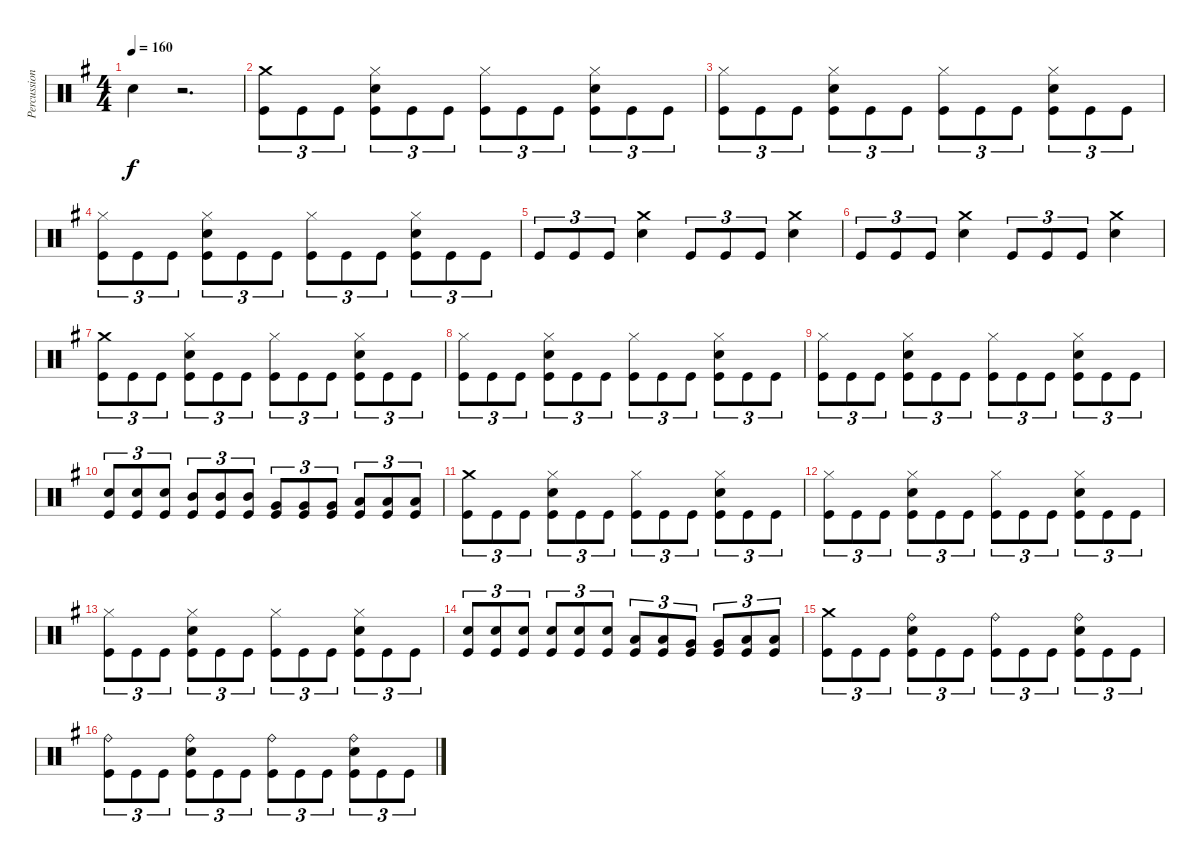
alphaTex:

\track ("Percussions" "Percussion") {instrument percussion}
\staff {score}
\articulation defaults
\ts (4 4)
\tempo 160
\clef neutral
\ks g "Electric Snare (hit)".4{dy f}
r.2{d} |
("Kick (hit)" "Crash medium (hit)").8{tu (3 2)} "Kick (hit)".8{tu (3 2)} "Kick (hit)".8{tu (3 2)} ("Kick (hit)" "Electric Snare (hit)" "Hi-Hat (closed)").8{tu (3 2)} "Kick (hit)".8{tu (3 2)} "Kick (hit)".8{tu (3 2)} ("Kick (hit)" "Hi-Hat (closed)").8{tu (3 2)} "Kick (hit)".8{tu (3 2)} "Kick (hit)".8{tu (3 2)} ("Kick (hit)" "Electric Snare (hit)" "Hi-Hat (closed)").8{tu (3 2)} "Kick (hit)".8{tu (3 2)} "Kick (hit)".8{tu (3 2)} |
("Kick (hit)" "Hi-Hat (closed)").8{tu (3 2)} "Kick (hit)".8{tu (3 2)} "Kick (hit)".8{tu (3 2)} ("Kick (hit)" "Electric Snare (hit)" "Hi-Hat (closed)").8{tu (3 2)} "Kick (hit)".8{tu (3 2)} "Kick (hit)".8{tu (3 2)} ("Kick (hit)" "Hi-Hat (closed)").8{tu (3 2)} "Kick (hit)".8{tu (3 2)} "Kick (hit)".8{tu (3 2)} ("Kick (hit)" "Electric Snare (hit)" "Hi-Hat (closed)").8{tu (3 2)} "Kick (hit)".8{tu (3 2)} "Kick (hit)".8{tu (3 2)} |
("Kick (hit)" "Hi-Hat (closed)").8{tu (3 2)} "Kick (hit)".8{tu (3 2)} "Kick (hit)".8{tu (3 2)} ("Kick (hit)" "Electric Snare (hit)" "Hi-Hat (closed)").8{tu (3 2)} "Kick (hit)".8{tu (3 2)} "Kick (hit)".8{tu (3 2)} ("Kick (hit)" "Hi-Hat (closed)").8{tu (3 2)} "Kick (hit)".8{tu (3 2)} "Kick (hit)".8{tu (3 2)} ("Kick (hit)" "Electric Snare (hit)" "Hi-Hat (closed)").8{tu (3 2)} "Kick (hit)".8{tu (3 2)} "Kick (hit)".8{tu (3 2)} |
"Kick (hit)".8{tu (3 2)} "Kick (hit)".8{tu (3 2)} "Kick (hit)".8{tu (3 2)} ("Electric Snare (hit)" "Crash medium (hit)").4 "Kick (hit)".8{tu (3 2)} "Kick (hit)".8{tu (3 2)} "Kick (hit)".8{tu (3 2)} ("Electric Snare (hit)" "Crash medium (hit)").4 |
"Kick (hit)".8{tu (3 2)} "Kick (hit)".8{tu (3 2)} "Kick (hit)".8{tu (3 2)} ("Electric Snare (hit)" "Crash medium (hit)").4 "Kick (hit)".8{tu (3 2)} "Kick (hit)".8{tu (3 2)} "Kick (hit)".8{tu (3 2)} ("Electric Snare (hit)" "Crash medium (hit)").4 |
("Kick (hit)" "Crash medium (hit)").8{tu (3 2)} "Kick (hit)".8{tu (3 2)} "Kick (hit)".8{tu (3 2)} ("Kick (hit)" "Electric Snare (hit)" "Hi-Hat (closed)").8{tu (3 2)} "Kick (hit)".8{tu (3 2)} "Kick (hit)".8{tu (3 2)} ("Kick (hit)" "Hi-Hat (closed)").8{tu (3 2)} "Kick (hit)".8{tu (3 2)} "Kick (hit)".8{tu (3 2)} ("Kick (hit)" "Electric Snare (hit)" "Hi-Hat (closed)").8{tu (3 2)} "Kick (hit)".8{tu (3 2)} "Kick (hit)".8{tu (3 2)} |
("Kick (hit)" "Hi-Hat (closed)").8{tu (3 2)} "Kick (hit)".8{tu (3 2)} "Kick (hit)".8{tu (3 2)} ("Kick (hit)" "Electric Snare (hit)" "Hi-Hat (closed)").8{tu (3 2)} "Kick (hit)".8{tu (3 2)} "Kick (hit)".8{tu (3 2)} ("Kick (hit)" "Hi-Hat (closed)").8{tu (3 2)} "Kick (hit)".8{tu (3 2)} "Kick (hit)".8{tu (3 2)} ("Kick (hit)" "Electric Snare (hit)" "Hi-Hat (closed)").8{tu (3 2)} "Kick (hit)".8{tu (3 2)} "Kick (hit)".8{tu (3 2)} |
("Kick (hit)" "Hi-Hat (closed)").8{tu (3 2)} "Kick (hit)".8{tu (3 2)} "Kick (hit)".8{tu (3 2)} ("Kick (hit)" "Electric Snare (hit)" "Hi-Hat (closed)").8{tu (3 2)} "Kick (hit)".8{tu (3 2)} "Kick (hit)".8{tu (3 2)} ("Kick (hit)" "Hi-Hat (closed)").8{tu (3 2)} "Kick (hit)".8{tu (3 2)} "Kick (hit)".8{tu (3 2)} ("Kick (hit)" "Electric Snare (hit)" "Hi-Hat (closed)").8{tu (3 2)} "Kick (hit)".8{tu (3 2)} "Kick (hit)".8{tu (3 2)} |
("Kick (hit)" "Electric Snare (hit)").8{tu (3 2)} ("Kick (hit)" "Electric Snare (hit)").8{tu (3 2)} ("Kick (hit)" "Electric Snare (hit)").8{tu (3 2)} ("Kick (hit)" "Mid Tom (hit)").8{tu (3 2)} ("Kick (hit)" "Mid Tom (hit)").8{tu (3 2)} ("Kick (hit)" "Mid Tom (hit)").8{tu (3 2)} ("Kick (hit)" "Very Low Tom (hit)").8{tu (3 2)} ("Kick (hit)" "Very Low Tom (hit)").8{tu (3 2)} ("Kick (hit)" "Very Low Tom (hit)").8{tu (3 2)} ("Kick (hit)" "Low Floor Tom (hit)").8{tu (3 2)} ("Kick (hit)" "Low Floor Tom (hit)").8{tu (3 2)} ("Kick (hit)" "Low Floor Tom (hit)").8{tu (3 2)} |
("Kick (hit)" "Crash medium (hit)").8{tu (3 2)} "Kick (hit)".8{tu (3 2)} "Kick (hit)".8{tu (3 2)} ("Kick (hit)" "Electric Snare (hit)" "Hi-Hat (closed)").8{tu (3 2)} "Kick (hit)".8{tu (3 2)} "Kick (hit)".8{tu (3 2)} ("Kick (hit)" "Hi-Hat (closed)").8{tu (3 2)} "Kick (hit)".8{tu (3 2)} "Kick (hit)".8{tu (3 2)} ("Kick (hit)" "Electric Snare (hit)" "Hi-Hat (closed)").8{tu (3 2)} "Kick (hit)".8{tu (3 2)} "Kick (hit)".8{tu (3 2)} |
("Kick (hit)" "Hi-Hat (closed)").8{tu (3 2)} "Kick (hit)".8{tu (3 2)} "Kick (hit)".8{tu (3 2)} ("Kick (hit)" "Electric Snare (hit)" "Hi-Hat (closed)").8{tu (3 2)} "Kick (hit)".8{tu (3 2)} "Kick (hit)".8{tu (3 2)} ("Kick (hit)" "Hi-Hat (closed)").8{tu (3 2)} "Kick (hit)".8{tu (3 2)} "Kick (hit)".8{tu (3 2)} ("Kick (hit)" "Electric Snare (hit)" "Hi-Hat (closed)").8{tu (3 2)} "Kick (hit)".8{tu (3 2)} "Kick (hit)".8{tu (3 2)} |
("Kick (hit)" "Hi-Hat (closed)").8{tu (3 2)} "Kick (hit)".8{tu (3 2)} "Kick (hit)".8{tu (3 2)} ("Kick (hit)" "Electric Snare (hit)" "Hi-Hat (closed)").8{tu (3 2)} "Kick (hit)".8{tu (3 2)} "Kick (hit)".8{tu (3 2)} ("Kick (hit)" "Hi-Hat (closed)").8{tu (3 2)} "Kick (hit)".8{tu (3 2)} "Kick (hit)".8{tu (3 2)} ("Kick (hit)" "Electric Snare (hit)" "Hi-Hat (closed)").8{tu (3 2)} "Kick (hit)".8{tu (3 2)} "Kick (hit)".8{tu (3 2)} |
("Kick (hit)" "Electric Snare (hit)").8{tu (3 2)} ("Kick (hit)" "Electric Snare (hit)").8{tu (3 2)} ("Kick (hit)" "Electric Snare (hit)").8{tu (3 2)} ("Kick (hit)" "Electric Snare (hit)").8{tu (3 2)} ("Kick (hit)" "Electric Snare (hit)").8{tu (3 2)} ("Kick (hit)" "Electric Snare (hit)").8{tu (3 2)} ("Kick (hit)" "Low Tom (hit)").8{tu (3 2)} ("Kick (hit)" "Low Tom (hit)").8{tu (3 2)} ("Kick (hit)" "Very Low Tom (hit)").8{tu (3 2)} ("Kick (hit)" "Very Low Tom (hit)").8{tu (3 2)} ("Kick (hit)" "Low Floor Tom (hit)").8{tu (3 2)} ("Kick (hit)" "Low Floor Tom (hit)").8{tu (3 2)} |
("Kick (hit)" "Crash medium (hit)").8{tu (3 2)} "Kick (hit)".8{tu (3 2)} "Kick (hit)".8{tu (3 2)} ("Kick (hit)" "Electric Snare (hit)" "Ride (bell)").8{tu (3 2)} "Kick (hit)".8{tu (3 2)} "Kick (hit)".8{tu (3 2)} ("Kick (hit)" "Ride (bell)").8{tu (3 2)} "Kick (hit)".8{tu (3 2)} "Kick (hit)".8{tu (3 2)} ("Kick (hit)" "Electric Snare (hit)" "Ride (bell)").8{tu (3 2)} "Kick (hit)".8{tu (3 2)} "Kick (hit)".8{tu (3 2)} |
("Kick (hit)" "Ride (bell)").8{tu (3 2)} "Kick (hit)".8{tu (3 2)} "Kick (hit)".8{tu (3 2)} ("Kick (hit)" "Electric Snare (hit)" "Ride (bell)").8{tu (3 2)} "Kick (hit)".8{tu (3 2)} "Kick (hit)".8{tu (3 2)} ("Kick (hit)" "Ride (bell)").8{tu (3 2)} "Kick (hit)".8{tu (3 2)} "Kick (hit)".8{tu (3 2)} ("Kick (hit)" "Electric Snare (hit)" "Ride (bell)").8{tu (3 2)} "Kick (hit)".8{tu (3 2)} "Kick (hit)".8{tu (3 2)}
